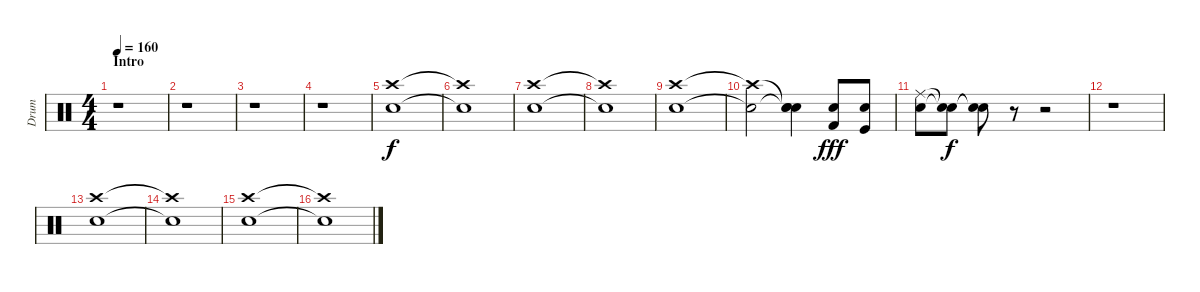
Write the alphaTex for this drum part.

\track ("Drum" "Drum") {instrument percussion}
\staff {score}
\articulation defaults
\ts (4 4)
\section ("" "Intro")
\tempo 160
\clef neutral
\ks c
r.1{dy f} |
r.1 |
r.1 |
r.1 |
("Crash high (hit)" "Electric Snare (hit)").1{volume 12} |
("Crash high (hit)"{t} "Electric Snare (hit)"{t}).1 |
("Crash high (hit)" "Electric Snare (hit)").1 |
("Crash high (hit)"{t} "Electric Snare (hit)"{t}).1 |
("Crash high (hit)" "Electric Snare (hit)").1 |
("Crash high (hit)"{t} "Electric Snare (hit)"{t}).2 ("Snare (hit)"{t} "Snare (hit)"{t} "Snare (hit)").4 ("Electric Snare (hit)" "Kick (hit) 2").8{dy fff} ("Snare (hit) 2" "Kick (hit)").8 |
("Ride (middle)" "Electric Snare (hit)").8{volume 0} ("Snare (hit)"{t} "Snare (hit)"{t}).8{dy f} ("Snare (hit)"{t} "Snare (hit)"{t}).8 r.8 r.2 |
r.1 |
("Crash high (hit)" "Electric Snare (hit)").1{volume 12} |
("Crash high (hit)"{t} "Electric Snare (hit)"{t}).1 |
("Crash high (hit)" "Electric Snare (hit)").1 |
("Crash high (hit)"{t} "Electric Snare (hit)"{t}).1
